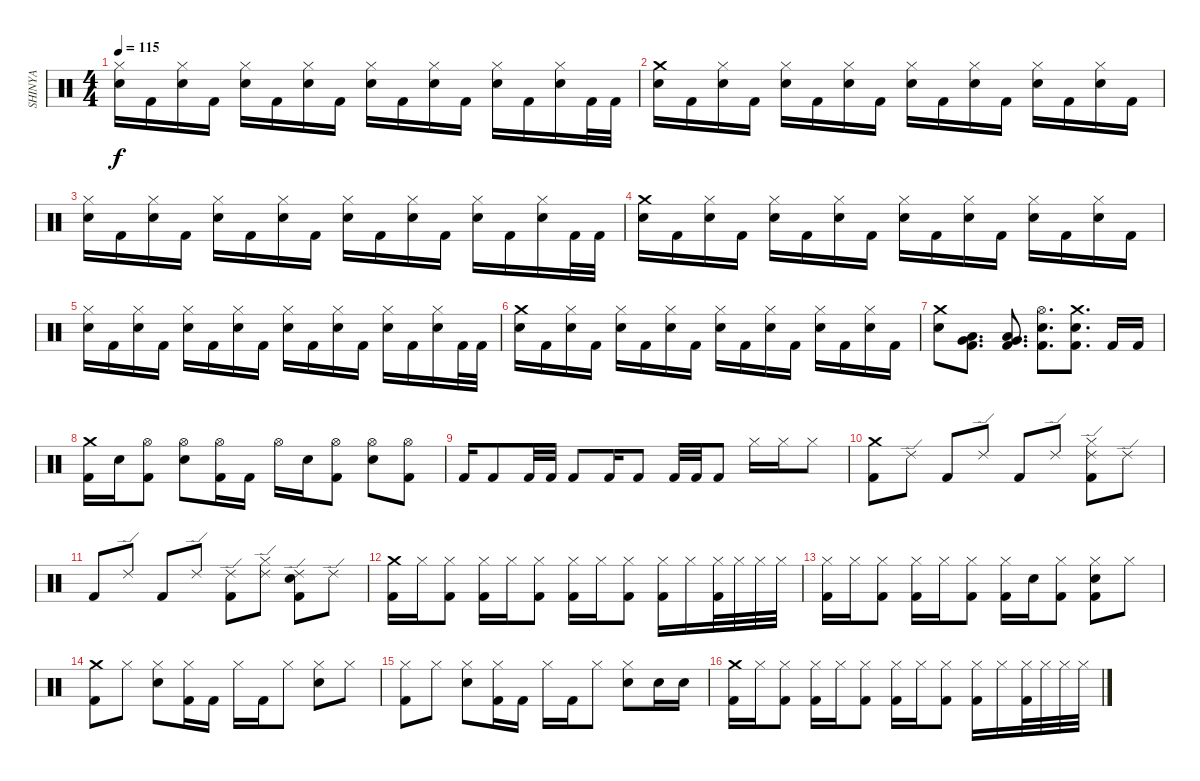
\track ("SHINYA" "SHINYA") {instrument percussion}
\staff {score}
\articulation defaults
\ts (4 4)
\tempo 115
\clef neutral
\ks c
("Hi-Hat (closed)" "Electric Snare (hit)").16{dy f} "Kick (hit) 2".16 ("Hi-Hat (closed)" "Electric Snare (hit)").16 "Kick (hit) 2".16 ("Hi-Hat (closed)" "Electric Snare (hit)").16 "Kick (hit) 2".16 ("Hi-Hat (closed)" "Electric Snare (hit)").16 "Kick (hit) 2".16 ("Hi-Hat (closed)" "Electric Snare (hit)").16 "Kick (hit) 2".16 ("Hi-Hat (closed)" "Electric Snare (hit)").16 "Kick (hit) 2".16 ("Hi-Hat (closed)" "Electric Snare (hit)").16 "Kick (hit) 2".16 ("Hi-Hat (closed)" "Electric Snare (hit)").16 "Kick (hit) 2".32 "Kick (hit) 2".32 |
("Crash medium (hit)" "Electric Snare (hit)").16 "Kick (hit) 2".16 ("Hi-Hat (closed)" "Electric Snare (hit)").16 "Kick (hit) 2".16 ("Hi-Hat (closed)" "Electric Snare (hit)").16 "Kick (hit) 2".16 ("Hi-Hat (closed)" "Electric Snare (hit)").16 "Kick (hit) 2".16 ("Hi-Hat (closed)" "Electric Snare (hit)").16 "Kick (hit) 2".16 ("Hi-Hat (closed)" "Electric Snare (hit)").16 "Kick (hit) 2".16 ("Hi-Hat (closed)" "Electric Snare (hit)").16 "Kick (hit) 2".16 ("Hi-Hat (closed)" "Electric Snare (hit)").16 "Kick (hit) 2".16 |
("Hi-Hat (closed)" "Electric Snare (hit)").16 "Kick (hit) 2".16 ("Hi-Hat (closed)" "Electric Snare (hit)").16 "Kick (hit) 2".16 ("Hi-Hat (closed)" "Electric Snare (hit)").16 "Kick (hit) 2".16 ("Hi-Hat (closed)" "Electric Snare (hit)").16 "Kick (hit) 2".16 ("Hi-Hat (closed)" "Electric Snare (hit)").16 "Kick (hit) 2".16 ("Hi-Hat (closed)" "Electric Snare (hit)").16 "Kick (hit) 2".16 ("Hi-Hat (closed)" "Electric Snare (hit)").16 "Kick (hit) 2".16 ("Hi-Hat (closed)" "Electric Snare (hit)").16 "Kick (hit) 2".32 "Kick (hit) 2".32 |
("Crash medium (hit)" "Electric Snare (hit)").16 "Kick (hit) 2".16 ("Hi-Hat (closed)" "Electric Snare (hit)").16 "Kick (hit) 2".16 ("Hi-Hat (closed)" "Electric Snare (hit)").16 "Kick (hit) 2".16 ("Hi-Hat (closed)" "Electric Snare (hit)").16 "Kick (hit) 2".16 ("Hi-Hat (closed)" "Electric Snare (hit)").16 "Kick (hit) 2".16 ("Hi-Hat (closed)" "Electric Snare (hit)").16 "Kick (hit) 2".16 ("Hi-Hat (closed)" "Electric Snare (hit)").16 "Kick (hit) 2".16 ("Hi-Hat (closed)" "Electric Snare (hit)").16 "Kick (hit) 2".16 |
("Hi-Hat (closed)" "Electric Snare (hit)").16 "Kick (hit) 2".16 ("Hi-Hat (closed)" "Electric Snare (hit)").16 "Kick (hit) 2".16 ("Hi-Hat (closed)" "Electric Snare (hit)").16 "Kick (hit) 2".16 ("Hi-Hat (closed)" "Electric Snare (hit)").16 "Kick (hit) 2".16 ("Hi-Hat (closed)" "Electric Snare (hit)").16 "Kick (hit) 2".16 ("Hi-Hat (closed)" "Electric Snare (hit)").16 "Kick (hit) 2".16 ("Hi-Hat (closed)" "Electric Snare (hit)").16 "Kick (hit) 2".16 ("Hi-Hat (closed)" "Electric Snare (hit)").16 "Kick (hit) 2".32 "Kick (hit) 2".32 |
("Crash medium (hit)" "Electric Snare (hit)").16 "Kick (hit) 2".16 ("Hi-Hat (closed)" "Electric Snare (hit)").16 "Kick (hit) 2".16 ("Hi-Hat (closed)" "Electric Snare (hit)").16 "Kick (hit) 2".16 ("Hi-Hat (closed)" "Electric Snare (hit)").16 "Kick (hit) 2".16 ("Hi-Hat (closed)" "Electric Snare (hit)").16 "Kick (hit) 2".16 ("Hi-Hat (closed)" "Electric Snare (hit)").16 "Kick (hit) 2".16 ("Hi-Hat (closed)" "Electric Snare (hit)").16 "Kick (hit) 2".16 ("Hi-Hat (closed)" "Electric Snare (hit)").16 "Kick (hit) 2".16 |
("Crash medium (hit)" "Electric Snare (hit)").8 ("Low Tom (hit)" "Very Low Tom (hit)" "Kick (hit) 2").8{d} ("Very Low Tom (hit)" "Low Floor Tom (hit)" "Kick (hit) 2").8{d} ("Hi-Hat (open)" "Electric Snare (hit)" "Kick (hit) 2").8{d} ("Crash medium (hit)" "Electric Snare (hit)" "Kick (hit) 2").8{d} "Kick (hit) 2".16 "Kick (hit) 2".16 |
("Crash medium (hit)" "Kick (hit) 2").16 "Electric Snare (hit)".16 ("Hi-Hat (open)" "Kick (hit) 2").8 ("Hi-Hat (open)" "Electric Snare (hit)").8 ("Hi-Hat (open)" "Kick (hit) 2").16 "Kick (hit) 2".16 "Hi-Hat (open)".16 "Electric Snare (hit)".16 ("Hi-Hat (open)" "Kick (hit) 2").8 ("Hi-Hat (open)" "Electric Snare (hit)").8 ("Hi-Hat (open)" "Kick (hit) 2").8 |
"Kick (hit) 2".16 "Kick (hit) 2".8 "Kick (hit) 2".32 "Kick (hit) 2".32 "Kick (hit) 2".8 "Kick (hit) 2".16 "Kick (hit) 2".8 "Kick (hit) 2".32 "Kick (hit) 2".32 "Kick (hit) 2".8 "Hi-Hat (closed)".16 "Hi-Hat (closed)".16 "Hi-Hat (closed)".8 |
("Crash medium (hit)" "Kick (hit) 2").8 "Ride (edge) 2".8 "Kick (hit) 2".8 "Ride (edge) 2".8 "Kick (hit) 2".8 "Ride (edge) 2".8 ("Ride (edge) 2" "Hi-Hat (closed)" "Kick (hit) 2").8 "Ride (edge) 2".8 |
"Kick (hit) 2".8 "Ride (edge) 2".8 "Kick (hit) 2".8 "Ride (edge) 2".8 ("Ride (edge) 2" "Kick (hit) 2").8 ("Ride (edge) 2" "Hi-Hat (closed)").8 ("Ride (edge) 2" "Electric Snare (hit)" "Kick (hit) 2").8 "Ride (edge) 2".8 |
("Crash medium (hit)" "Kick (hit) 2").16 "Hi-Hat (closed)".16 ("Hi-Hat (closed)" "Kick (hit) 2").8 ("Hi-Hat (closed)" "Kick (hit) 2").16 "Hi-Hat (closed)".16 ("Hi-Hat (closed)" "Kick (hit) 2").8 ("Hi-Hat (closed)" "Kick (hit) 2").16 "Hi-Hat (closed)".16 ("Hi-Hat (closed)" "Kick (hit) 2").8 ("Hi-Hat (closed)" "Kick (hit) 2").16 "Hi-Hat (closed)".16 ("Hi-Hat (closed)" "Kick (hit) 2").32 "Hi-Hat (closed)".32 "Hi-Hat (closed)".32 "Hi-Hat (closed)".32 |
("Hi-Hat (closed)" "Kick (hit) 2").16 "Hi-Hat (closed)".16 ("Hi-Hat (closed)" "Kick (hit) 2").8 ("Hi-Hat (closed)" "Kick (hit) 2").16 "Hi-Hat (closed)".16 ("Hi-Hat (closed)" "Kick (hit) 2").8 ("Hi-Hat (closed)" "Kick (hit) 2").16 "Electric Snare (hit)".16 ("Hi-Hat (closed)" "Kick (hit) 2").8 ("Hi-Hat (closed)" "Electric Snare (hit)" "Kick (hit) 2").8 "Hi-Hat (closed)".8 |
("Crash medium (hit)" "Kick (hit) 2").8 "Hi-Hat (closed)".8 ("Hi-Hat (closed)" "Electric Snare (hit)").8 ("Hi-Hat (closed)" "Kick (hit) 2").16 "Kick (hit) 2".16 "Hi-Hat (closed)".16 "Kick (hit) 2".16 "Hi-Hat (closed)".8 ("Hi-Hat (closed)" "Electric Snare (hit)").8 "Hi-Hat (closed)".8 |
("Hi-Hat (closed)" "Kick (hit) 2").8 "Hi-Hat (closed)".8 ("Hi-Hat (closed)" "Electric Snare (hit)").8 ("Hi-Hat (closed)" "Kick (hit) 2").16 "Kick (hit) 2".16 "Hi-Hat (closed)".16 "Kick (hit) 2".16 "Hi-Hat (closed)".8 ("Hi-Hat (closed)" "Electric Snare (hit)").8 "Electric Snare (hit)".16 "Electric Snare (hit)".16 |
("Crash medium (hit)" "Kick (hit) 2").16 "Hi-Hat (closed)".16 ("Hi-Hat (closed)" "Kick (hit) 2").8 ("Hi-Hat (closed)" "Kick (hit) 2").16 "Hi-Hat (closed)".16 ("Hi-Hat (closed)" "Kick (hit) 2").8 ("Hi-Hat (closed)" "Kick (hit) 2").16 "Hi-Hat (closed)".16 ("Hi-Hat (closed)" "Kick (hit) 2").8 ("Hi-Hat (closed)" "Kick (hit) 2").16 "Hi-Hat (closed)".16 ("Hi-Hat (closed)" "Kick (hit) 2").32 "Hi-Hat (closed)".32 "Hi-Hat (closed)".32 "Hi-Hat (closed)".32
